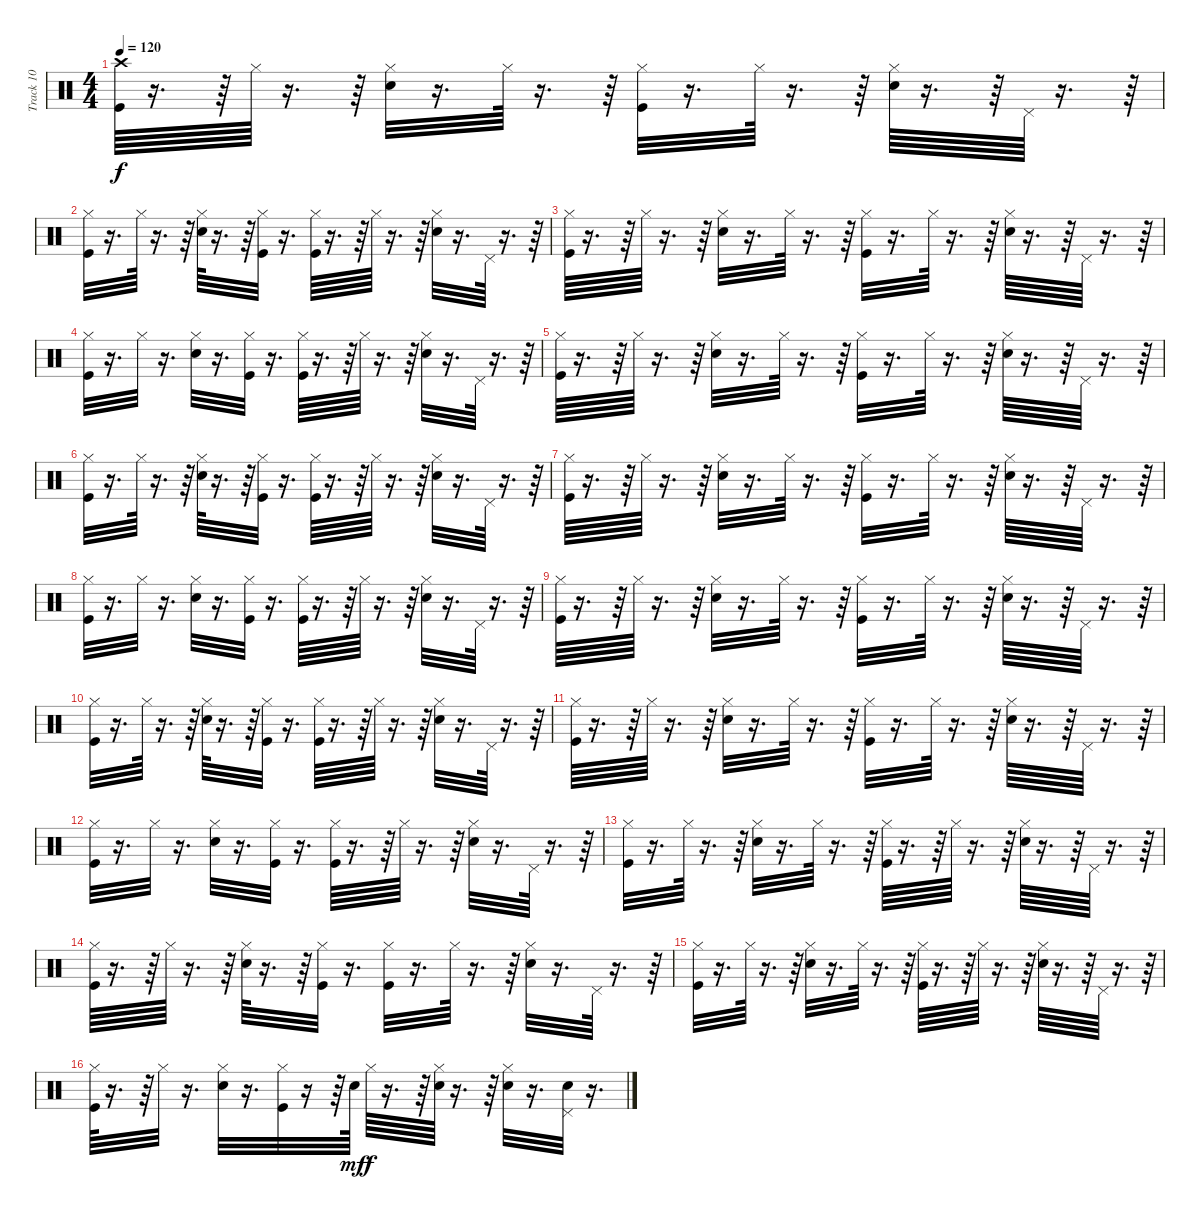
\track ("Track 10" "Track 10") {instrument percussion}
\staff {score}
\articulation defaults
\ts (4 4)
\tempo 120
\clef neutral
\ks c
("Kick (hit)" "Crash high (hit)").64{dy f} r.16{d} r.64 "Hi-Hat (closed)".64 r.16{d} r.64 ("Snare (hit) 2" "Hi-Hat (closed)").32 r.16{d} "Hi-Hat (closed)".64 r.16{d} r.64 ("Kick (hit)" "Hi-Hat (closed)").32 r.16{d} "Hi-Hat (closed)".64 r.16{d} r.64 ("Snare (hit) 2" "Hi-Hat (closed)").64 r.16{d} r.64 "Pedal Hi-Hat (hit)".64 r.16{d} r.64 |
("Kick (hit)" "Hi-Hat (closed)").32 r.16{d} "Hi-Hat (closed)".64 r.16{d} r.64 ("Snare (hit) 2" "Hi-Hat (closed)").64 r.16{d} r.64 ("Kick (hit)" "Hi-Hat (closed)").32 r.16{d} ("Kick (hit)" "Hi-Hat (closed)").64 r.16{d} r.64 "Hi-Hat (closed)".64 r.16{d} r.64 ("Snare (hit) 2" "Hi-Hat (closed)").32 r.16{d} "Pedal Hi-Hat (hit)".64 r.16{d} r.64 |
("Kick (hit)" "Hi-Hat (closed)").64 r.16{d} r.64 "Hi-Hat (closed)".64 r.16{d} r.64 ("Snare (hit) 2" "Hi-Hat (closed)").32 r.16{d} "Hi-Hat (closed)".64 r.16{d} r.64 ("Kick (hit)" "Hi-Hat (closed)").32 r.16{d} "Hi-Hat (closed)".64 r.16{d} r.64 ("Snare (hit) 2" "Hi-Hat (closed)").64 r.16{d} r.64 "Pedal Hi-Hat (hit)".64 r.16{d} r.64 |
("Kick (hit)" "Hi-Hat (closed)").32 r.16{d} "Hi-Hat (closed)".32 r.16{d} ("Snare (hit) 2" "Hi-Hat (closed)").32 r.16{d} ("Kick (hit)" "Hi-Hat (closed)").32 r.16{d} ("Kick (hit)" "Hi-Hat (closed)").64 r.16{d} r.64 "Hi-Hat (closed)".64 r.16{d} r.64 ("Snare (hit) 2" "Hi-Hat (closed)").32 r.16{d} "Pedal Hi-Hat (hit)".64 r.16{d} r.64 |
("Kick (hit)" "Hi-Hat (closed)").64 r.16{d} r.64 "Hi-Hat (closed)".64 r.16{d} r.64 ("Snare (hit) 2" "Hi-Hat (closed)").32 r.16{d} "Hi-Hat (closed)".64 r.16{d} r.64 ("Kick (hit)" "Hi-Hat (closed)").32 r.16{d} "Hi-Hat (closed)".64 r.16{d} r.64 ("Snare (hit) 2" "Hi-Hat (closed)").64 r.16{d} r.64 "Pedal Hi-Hat (hit)".64 r.16{d} r.64 |
("Kick (hit)" "Hi-Hat (closed)").32 r.16{d} "Hi-Hat (closed)".64 r.16{d} r.64 ("Snare (hit) 2" "Hi-Hat (closed)").64 r.16{d} r.64 ("Kick (hit)" "Hi-Hat (closed)").32 r.16{d} ("Kick (hit)" "Hi-Hat (closed)").64 r.16{d} r.64 "Hi-Hat (closed)".64 r.16{d} r.64 ("Snare (hit) 2" "Hi-Hat (closed)").32 r.16{d} "Pedal Hi-Hat (hit)".64 r.16{d} r.64 |
("Kick (hit)" "Hi-Hat (closed)").64 r.16{d} r.64 "Hi-Hat (closed)".64 r.16{d} r.64 ("Snare (hit) 2" "Hi-Hat (closed)").32 r.16{d} "Hi-Hat (closed)".64 r.16{d} r.64 ("Kick (hit)" "Hi-Hat (closed)").32 r.16{d} "Hi-Hat (closed)".64 r.16{d} r.64 ("Snare (hit) 2" "Hi-Hat (closed)").64 r.16{d} r.64 "Pedal Hi-Hat (hit)".64 r.16{d} r.64 |
("Kick (hit)" "Hi-Hat (closed)").32 r.16{d} "Hi-Hat (closed)".32 r.16{d} ("Snare (hit) 2" "Hi-Hat (closed)").32 r.16{d} ("Kick (hit)" "Hi-Hat (closed)").32 r.16{d} ("Kick (hit)" "Hi-Hat (closed)").64 r.16{d} r.64 "Hi-Hat (closed)".64 r.16{d} r.64 ("Snare (hit) 2" "Hi-Hat (closed)").32 r.16{d} "Pedal Hi-Hat (hit)".64 r.16{d} r.64 |
("Kick (hit)" "Hi-Hat (closed)").64 r.16{d} r.64 "Hi-Hat (closed)".64 r.16{d} r.64 ("Snare (hit) 2" "Hi-Hat (closed)").32 r.16{d} "Hi-Hat (closed)".64 r.16{d} r.64 ("Kick (hit)" "Hi-Hat (closed)").32 r.16{d} "Hi-Hat (closed)".64 r.16{d} r.64 ("Snare (hit) 2" "Hi-Hat (closed)").64 r.16{d} r.64 "Pedal Hi-Hat (hit)".64 r.16{d} r.64 |
("Kick (hit)" "Hi-Hat (closed)").32 r.16{d} "Hi-Hat (closed)".64 r.16{d} r.64 ("Snare (hit) 2" "Hi-Hat (closed)").64 r.16{d} r.64 ("Kick (hit)" "Hi-Hat (closed)").32 r.16{d} ("Kick (hit)" "Hi-Hat (closed)").64 r.16{d} r.64 "Hi-Hat (closed)".64 r.16{d} r.64 ("Snare (hit) 2" "Hi-Hat (closed)").32 r.16{d} "Pedal Hi-Hat (hit)".64 r.16{d} r.64 |
("Kick (hit)" "Hi-Hat (closed)").64 r.16{d} r.64 "Hi-Hat (closed)".64 r.16{d} r.64 ("Snare (hit) 2" "Hi-Hat (closed)").32 r.16{d} "Hi-Hat (closed)".64 r.16{d} r.64 ("Kick (hit)" "Hi-Hat (closed)").32 r.16{d} "Hi-Hat (closed)".64 r.16{d} r.64 ("Snare (hit) 2" "Hi-Hat (closed)").64 r.16{d} r.64 "Pedal Hi-Hat (hit)".64 r.16{d} r.64 |
("Kick (hit)" "Hi-Hat (closed)").32 r.16{d} "Hi-Hat (closed)".32 r.16{d} ("Snare (hit) 2" "Hi-Hat (closed)").32 r.16{d} ("Kick (hit)" "Hi-Hat (closed)").32 r.16{d} ("Kick (hit)" "Hi-Hat (closed)").64 r.16{d} r.64 "Hi-Hat (closed)".64 r.16{d} r.64 ("Snare (hit) 2" "Hi-Hat (closed)").32 r.16{d} "Pedal Hi-Hat (hit)".64 r.16{d} r.64 |
("Kick (hit)" "Hi-Hat (closed)").32 r.16{d} "Hi-Hat (closed)".64 r.16{d} r.64 ("Snare (hit) 2" "Hi-Hat (closed)").32 r.16{d} "Hi-Hat (closed)".64 r.16{d} r.64 ("Kick (hit)" "Hi-Hat (closed)").64 r.16{d} r.64 "Hi-Hat (closed)".64 r.16{d} r.64 ("Snare (hit) 2" "Hi-Hat (closed)").64 r.16{d} r.64 "Pedal Hi-Hat (hit)".64 r.16{d} r.64 |
("Kick (hit)" "Hi-Hat (closed)").64 r.16{d} r.64 "Hi-Hat (closed)".64 r.16{d} r.64 ("Snare (hit) 2" "Hi-Hat (closed)").64 r.16{d} r.64 ("Kick (hit)" "Hi-Hat (closed)").32 r.16{d} ("Kick (hit)" "Hi-Hat (closed)").32 r.16{d} "Hi-Hat (closed)".64 r.16{d} r.64 ("Snare (hit) 2" "Hi-Hat (closed)").32 r.16{d} "Pedal Hi-Hat (hit)".64 r.16{d} r.64 |
("Kick (hit)" "Hi-Hat (closed)").32 r.16{d} "Hi-Hat (closed)".64 r.16{d} r.64 ("Snare (hit) 2" "Hi-Hat (closed)").32 r.16{d} "Hi-Hat (closed)".64 r.16{d} r.64 ("Kick (hit)" "Hi-Hat (closed)").64 r.16{d} r.64 "Hi-Hat (closed)".64 r.16{d} r.64 ("Snare (hit) 2" "Hi-Hat (closed)").64 r.16{d} r.64 "Pedal Hi-Hat (hit)".64 r.16{d} r.64 |
("Kick (hit)" "Hi-Hat (closed)").64 r.16{d} r.64 "Hi-Hat (closed)".32 r.16{d} ("Snare (hit) 2" "Hi-Hat (closed)").32 r.16{d} ("Kick (hit)" "Hi-Hat (closed)").32 r.16 r.64 "Snare (hit) 2".64{dy mf} "Hi-Hat (closed)".64{dy f} r.16{d} r.64 ("Snare (hit) 2" "Hi-Hat (closed)").64 r.16{d} r.64 ("Snare (hit) 2" "Hi-Hat (closed)").32 r.16{d} ("Snare (hit) 2" "Pedal Hi-Hat (hit)").32 r.16{d}
